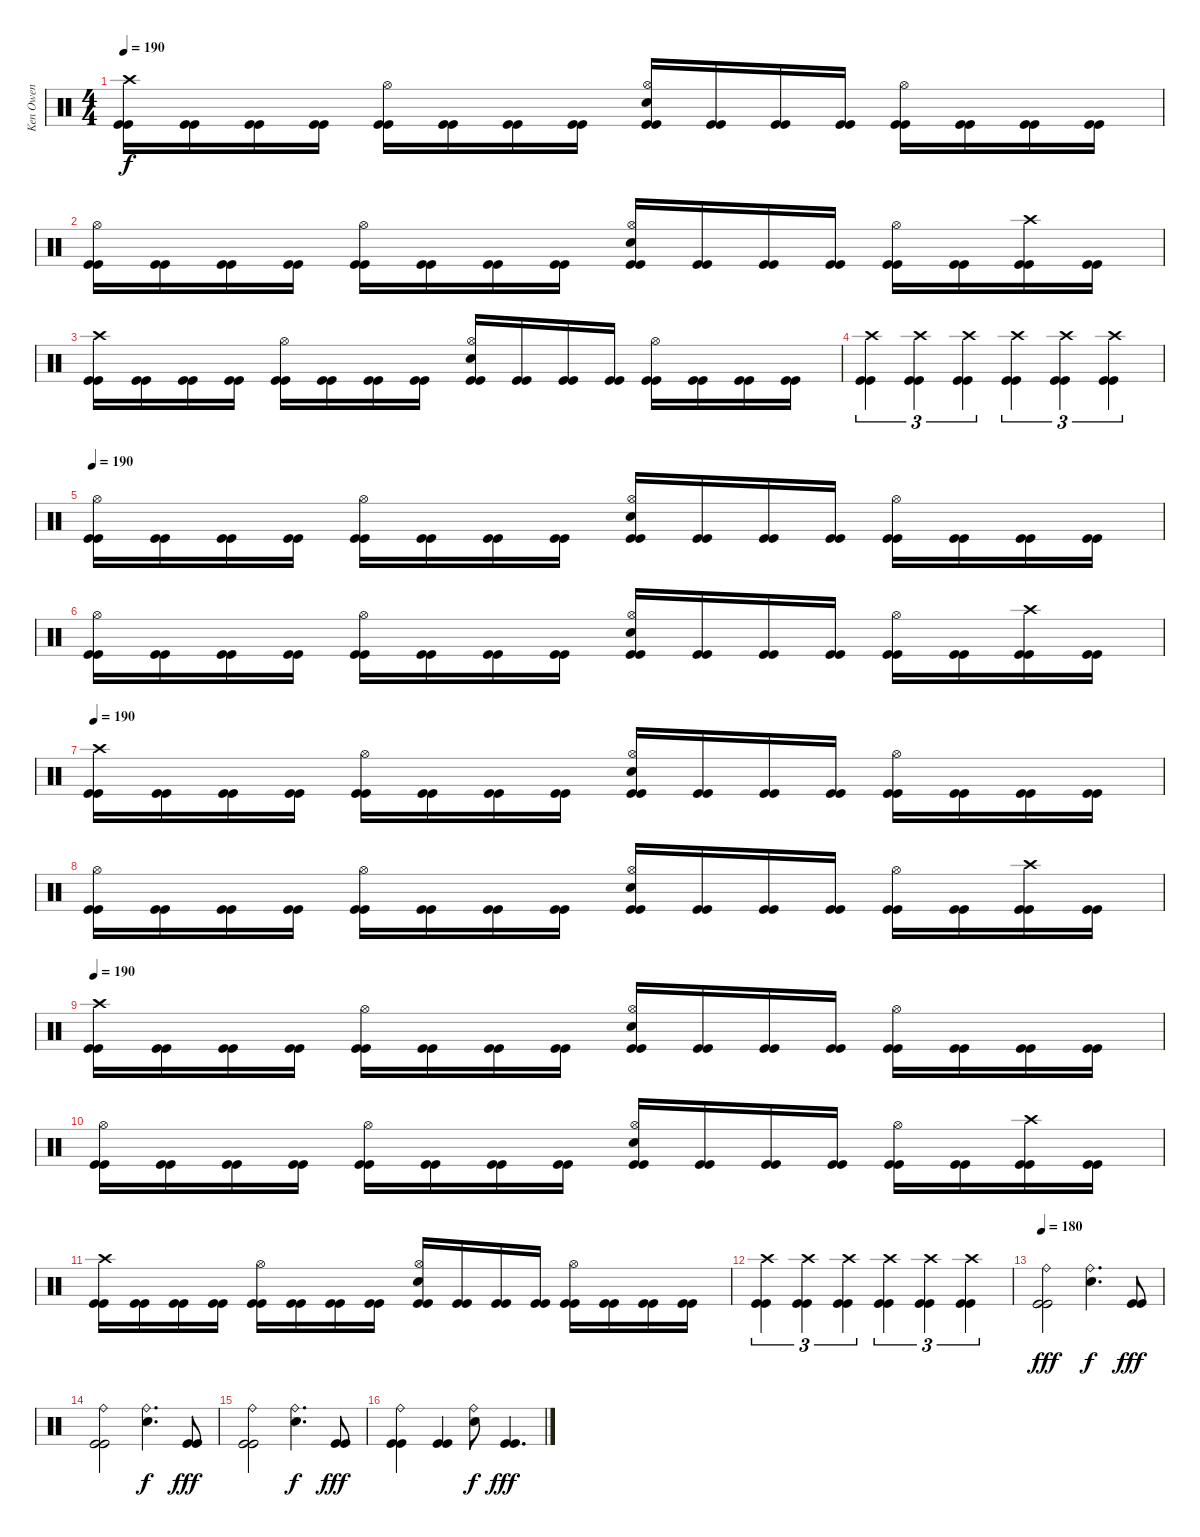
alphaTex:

\track ("Ken Owen" "Ken Owen") {instrument percussion}
\staff {score}
\articulation defaults
\ts (4 4)
\tempo 190
\clef neutral
\ks c
("Crash high (hit)" "Kick (hit)" "Kick (hit)").16{dy f} ("Kick (hit)" "Kick (hit)").16 ("Kick (hit)" "Kick (hit)").16 ("Kick (hit)" "Kick (hit)").16 ("Hi-Hat (open)" "Kick (hit)" "Kick (hit)").16 ("Kick (hit)" "Kick (hit)").16 ("Kick (hit)" "Kick (hit)").16 ("Kick (hit)" "Kick (hit)").16 ("Hi-Hat (open)" "Snare (hit) 2" "Kick (hit)" "Kick (hit)").16 ("Kick (hit)" "Kick (hit)").16 ("Kick (hit)" "Kick (hit)").16 ("Kick (hit)" "Kick (hit)").16 ("Hi-Hat (open)" "Kick (hit)" "Kick (hit)").16 ("Kick (hit)" "Kick (hit)").16 ("Kick (hit)" "Kick (hit)").16 ("Kick (hit)" "Kick (hit)").16 |
("Hi-Hat (open)" "Kick (hit)" "Kick (hit)").16 ("Kick (hit)" "Kick (hit)").16 ("Kick (hit)" "Kick (hit)").16 ("Kick (hit)" "Kick (hit)").16 ("Hi-Hat (open)" "Kick (hit)" "Kick (hit)").16 ("Kick (hit)" "Kick (hit)").16 ("Kick (hit)" "Kick (hit)").16 ("Kick (hit)" "Kick (hit)").16 ("Hi-Hat (open)" "Snare (hit) 2" "Kick (hit)" "Kick (hit)").16 ("Kick (hit)" "Kick (hit)").16 ("Kick (hit)" "Kick (hit)").16 ("Kick (hit)" "Kick (hit)").16 ("Hi-Hat (open)" "Kick (hit)" "Kick (hit)").16 ("Kick (hit)" "Kick (hit)").16 ("Crash high (hit)" "Kick (hit)" "Kick (hit)").16 ("Kick (hit)" "Kick (hit)").16 |
("Crash high (hit)" "Kick (hit)" "Kick (hit)").16 ("Kick (hit)" "Kick (hit)").16 ("Kick (hit)" "Kick (hit)").16 ("Kick (hit)" "Kick (hit)").16 ("Hi-Hat (open)" "Kick (hit)" "Kick (hit)").16 ("Kick (hit)" "Kick (hit)").16 ("Kick (hit)" "Kick (hit)").16 ("Kick (hit)" "Kick (hit)").16 ("Hi-Hat (open)" "Snare (hit) 2" "Kick (hit)" "Kick (hit)").16 ("Kick (hit)" "Kick (hit)").16 ("Kick (hit)" "Kick (hit)").16 ("Kick (hit)" "Kick (hit)").16 ("Hi-Hat (open)" "Kick (hit)" "Kick (hit)").16 ("Kick (hit)" "Kick (hit)").16 ("Kick (hit)" "Kick (hit)").16 ("Kick (hit)" "Kick (hit)").16 |
("Crash high (hit)" "Kick (hit)" "Kick (hit)").4{tu (3 2)} ("Crash high (hit)" "Kick (hit)" "Kick (hit)").4{tu (3 2)} ("Crash high (hit)" "Kick (hit)" "Kick (hit)").4{tu (3 2)} ("Crash high (hit)" "Kick (hit)" "Kick (hit)").4{tu (3 2)} ("Crash high (hit)" "Kick (hit)" "Kick (hit)").4{tu (3 2)} ("Crash high (hit)" "Kick (hit)" "Kick (hit)").4{tu (3 2)} |
\tempo 190
("Hi-Hat (open)" "Kick (hit)" "Kick (hit)").16 ("Kick (hit)" "Kick (hit)").16 ("Kick (hit)" "Kick (hit)").16 ("Kick (hit)" "Kick (hit)").16 ("Hi-Hat (open)" "Kick (hit)" "Kick (hit)").16 ("Kick (hit)" "Kick (hit)").16 ("Kick (hit)" "Kick (hit)").16 ("Kick (hit)" "Kick (hit)").16 ("Hi-Hat (open)" "Snare (hit) 2" "Kick (hit)" "Kick (hit)").16 ("Kick (hit)" "Kick (hit)").16 ("Kick (hit)" "Kick (hit)").16 ("Kick (hit)" "Kick (hit)").16 ("Hi-Hat (open)" "Kick (hit)" "Kick (hit)").16 ("Kick (hit)" "Kick (hit)").16 ("Kick (hit)" "Kick (hit)").16 ("Kick (hit)" "Kick (hit)").16 |
("Hi-Hat (open)" "Kick (hit)" "Kick (hit)").16 ("Kick (hit)" "Kick (hit)").16 ("Kick (hit)" "Kick (hit)").16 ("Kick (hit)" "Kick (hit)").16 ("Hi-Hat (open)" "Kick (hit)" "Kick (hit)").16 ("Kick (hit)" "Kick (hit)").16 ("Kick (hit)" "Kick (hit)").16 ("Kick (hit)" "Kick (hit)").16 ("Hi-Hat (open)" "Snare (hit) 2" "Kick (hit)" "Kick (hit)").16 ("Kick (hit)" "Kick (hit)").16 ("Kick (hit)" "Kick (hit)").16 ("Kick (hit)" "Kick (hit)").16 ("Hi-Hat (open)" "Kick (hit)" "Kick (hit)").16 ("Kick (hit)" "Kick (hit)").16 ("Crash high (hit)" "Kick (hit)" "Kick (hit)").16 ("Kick (hit)" "Kick (hit)").16 |
\tempo 190
("Crash high (hit)" "Kick (hit)" "Kick (hit)").16 ("Kick (hit)" "Kick (hit)").16 ("Kick (hit)" "Kick (hit)").16 ("Kick (hit)" "Kick (hit)").16 ("Hi-Hat (open)" "Kick (hit)" "Kick (hit)").16 ("Kick (hit)" "Kick (hit)").16 ("Kick (hit)" "Kick (hit)").16 ("Kick (hit)" "Kick (hit)").16 ("Hi-Hat (open)" "Snare (hit) 2" "Kick (hit)" "Kick (hit)").16 ("Kick (hit)" "Kick (hit)").16 ("Kick (hit)" "Kick (hit)").16 ("Kick (hit)" "Kick (hit)").16 ("Hi-Hat (open)" "Kick (hit)" "Kick (hit)").16 ("Kick (hit)" "Kick (hit)").16 ("Kick (hit)" "Kick (hit)").16 ("Kick (hit)" "Kick (hit)").16 |
("Hi-Hat (open)" "Kick (hit)" "Kick (hit)").16 ("Kick (hit)" "Kick (hit)").16 ("Kick (hit)" "Kick (hit)").16 ("Kick (hit)" "Kick (hit)").16 ("Hi-Hat (open)" "Kick (hit)" "Kick (hit)").16 ("Kick (hit)" "Kick (hit)").16 ("Kick (hit)" "Kick (hit)").16 ("Kick (hit)" "Kick (hit)").16 ("Hi-Hat (open)" "Snare (hit) 2" "Kick (hit)" "Kick (hit)").16 ("Kick (hit)" "Kick (hit)").16 ("Kick (hit)" "Kick (hit)").16 ("Kick (hit)" "Kick (hit)").16 ("Hi-Hat (open)" "Kick (hit)" "Kick (hit)").16 ("Kick (hit)" "Kick (hit)").16 ("Crash high (hit)" "Kick (hit)" "Kick (hit)").16 ("Kick (hit)" "Kick (hit)").16 |
\tempo 190
("Crash high (hit)" "Kick (hit)" "Kick (hit)").16 ("Kick (hit)" "Kick (hit)").16 ("Kick (hit)" "Kick (hit)").16 ("Kick (hit)" "Kick (hit)").16 ("Hi-Hat (open)" "Kick (hit)" "Kick (hit)").16 ("Kick (hit)" "Kick (hit)").16 ("Kick (hit)" "Kick (hit)").16 ("Kick (hit)" "Kick (hit)").16 ("Hi-Hat (open)" "Snare (hit) 2" "Kick (hit)" "Kick (hit)").16 ("Kick (hit)" "Kick (hit)").16 ("Kick (hit)" "Kick (hit)").16 ("Kick (hit)" "Kick (hit)").16 ("Hi-Hat (open)" "Kick (hit)" "Kick (hit)").16 ("Kick (hit)" "Kick (hit)").16 ("Kick (hit)" "Kick (hit)").16 ("Kick (hit)" "Kick (hit)").16 |
("Hi-Hat (open)" "Kick (hit)" "Kick (hit)").16 ("Kick (hit)" "Kick (hit)").16 ("Kick (hit)" "Kick (hit)").16 ("Kick (hit)" "Kick (hit)").16 ("Hi-Hat (open)" "Kick (hit)" "Kick (hit)").16 ("Kick (hit)" "Kick (hit)").16 ("Kick (hit)" "Kick (hit)").16 ("Kick (hit)" "Kick (hit)").16 ("Hi-Hat (open)" "Snare (hit) 2" "Kick (hit)" "Kick (hit)").16 ("Kick (hit)" "Kick (hit)").16 ("Kick (hit)" "Kick (hit)").16 ("Kick (hit)" "Kick (hit)").16 ("Hi-Hat (open)" "Kick (hit)" "Kick (hit)").16 ("Kick (hit)" "Kick (hit)").16 ("Crash high (hit)" "Kick (hit)" "Kick (hit)").16 ("Kick (hit)" "Kick (hit)").16 |
("Crash high (hit)" "Kick (hit)" "Kick (hit)").16 ("Kick (hit)" "Kick (hit)").16 ("Kick (hit)" "Kick (hit)").16 ("Kick (hit)" "Kick (hit)").16 ("Hi-Hat (open)" "Kick (hit)" "Kick (hit)").16 ("Kick (hit)" "Kick (hit)").16 ("Kick (hit)" "Kick (hit)").16 ("Kick (hit)" "Kick (hit)").16 ("Hi-Hat (open)" "Snare (hit) 2" "Kick (hit)" "Kick (hit)").16 ("Kick (hit)" "Kick (hit)").16 ("Kick (hit)" "Kick (hit)").16 ("Kick (hit)" "Kick (hit)").16 ("Hi-Hat (open)" "Kick (hit)" "Kick (hit)").16 ("Kick (hit)" "Kick (hit)").16 ("Kick (hit)" "Kick (hit)").16 ("Kick (hit)" "Kick (hit)").16 |
("Crash high (hit)" "Kick (hit)" "Kick (hit)").4{tu (3 2)} ("Crash high (hit)" "Kick (hit)" "Kick (hit)").4{tu (3 2)} ("Crash high (hit)" "Kick (hit)" "Kick (hit)").4{tu (3 2)} ("Crash high (hit)" "Kick (hit)" "Kick (hit)").4{tu (3 2)} ("Crash high (hit)" "Kick (hit)" "Kick (hit)").4{tu (3 2)} ("Crash high (hit)" "Kick (hit)" "Kick (hit)").4{tu (3 2)} |
\tempo 180
("Ride (bell)" "Kick (hit)" "Kick (hit)").2{dy fff} ("Ride (bell)" "Snare (hit) 2").4{d dy f} ("Kick (hit)" "Kick (hit)").8{dy fff} |
("Ride (bell)" "Kick (hit)" "Kick (hit)").2 ("Ride (bell)" "Snare (hit) 2").4{d dy f} ("Kick (hit)" "Kick (hit)").8{dy fff} |
("Ride (bell)" "Kick (hit)" "Kick (hit)").2 ("Ride (bell)" "Snare (hit) 2").4{d dy f} ("Kick (hit)" "Kick (hit)").8{dy fff} |
("Ride (bell)" "Kick (hit)" "Kick (hit)").4 ("Kick (hit)" "Kick (hit)").4 ("Ride (bell)" "Snare (hit) 2").8{dy f} ("Kick (hit)" "Kick (hit)").4{d dy fff}
